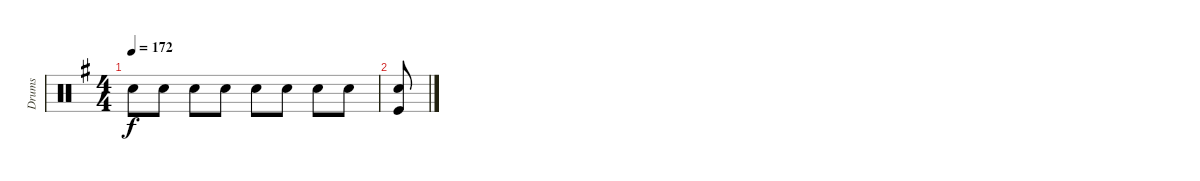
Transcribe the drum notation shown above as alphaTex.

\track ("Drums" "Drums") {instrument percussion}
\staff {score}
\articulation defaults
\ts (4 4)
\tempo 172
\clef neutral
\ks g "Snare (hit) 2".8{dy f} "Snare (hit) 2".8 "Snare (hit) 2".8 "Snare (hit) 2".8 "Snare (hit) 2".8 "Snare (hit) 2".8 "Snare (hit) 2".8 "Snare (hit) 2".8
|
("Snare (hit) 2" "Kick (hit)").8
